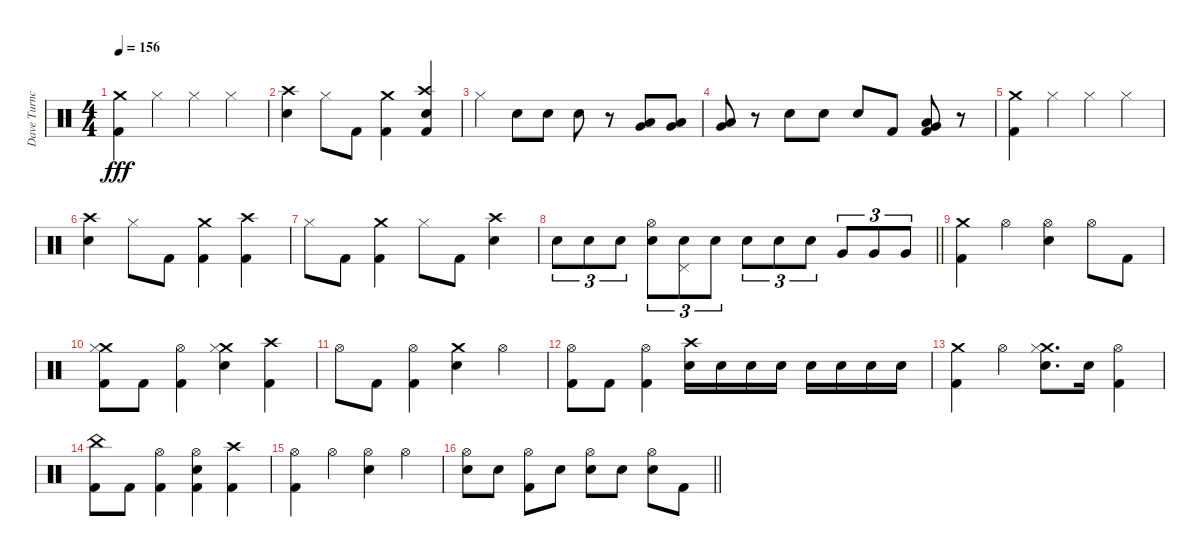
\track ("Dave Turncrantz" "Dave Turnc") {instrument percussion}
\staff {score}
\articulation defaults
\ts (4 4)
\section ("" "")
\tempo 156
\clef neutral
\ks c
("Crash medium (hit)" "Kick (hit) 2").4{dy fff} "Hi-Hat (closed)".4 "Hi-Hat (closed)".4 "Hi-Hat (closed)".4 |
("Crash high (hit)" "Electric Snare (hit)").4 "Hi-Hat (closed)".8 "Kick (hit) 2".8 ("Crash medium (hit)" "Kick (hit) 2").4 ("Crash high (hit)" "Electric Snare (hit)" "Kick (hit) 2").4 |
"Hi-Hat (closed)".4 "Electric Snare (hit)".8 "Electric Snare (hit)".8 "Electric Snare (hit)".8 r.8 ("Very Low Tom (hit)" "Low Floor Tom (hit)").8 ("Very Low Tom (hit)" "Low Floor Tom (hit)").8 |
("Very Low Tom (hit)" "Low Floor Tom (hit)").8 r.8 "Electric Snare (hit)".8 "Electric Snare (hit)".8 "Electric Snare (hit)".8 "Kick (hit) 2".8 ("Very Low Tom (hit)" "Low Floor Tom (hit)" "Kick (hit) 2").8 r.8 |
("Crash medium (hit)" "Kick (hit) 2").4 "Hi-Hat (closed)".4 "Hi-Hat (closed)".4 "Hi-Hat (closed)".4 |
("Crash high (hit)" "Electric Snare (hit)").4 "Hi-Hat (closed)".8 "Kick (hit) 2".8 ("Crash medium (hit)" "Kick (hit) 2").4 ("Crash high (hit)" "Kick (hit) 2").4 |
"Hi-Hat (closed)".8 "Kick (hit) 2".8 ("Crash medium (hit)" "Kick (hit) 2").4 "Hi-Hat (closed)".8 "Kick (hit) 2".8 ("Crash high (hit)" "Electric Snare (hit)").4 |
\barLineRight lightlight "Electric Snare (hit)".8{tu (3 2)} "Electric Snare (hit)".8{tu (3 2)} "Electric Snare (hit)".8{tu (3 2)}
("Hi-Hat (open)" "Electric Snare (hit)").8{tu (3 2)} ("Pedal Hi-Hat (hit)" "Electric Snare (hit)").8{tu (3 2)} "Electric Snare (hit)".8{tu (3 2)} "Electric Snare (hit)".8{tu (3 2)} "Electric Snare (hit)".8{tu (3 2)} "Electric Snare (hit)".8{tu (3 2)} "Very Low Tom (hit)".8{tu (3 2)} "Very Low Tom (hit)".8{tu (3 2)} "Very Low Tom (hit)".8{tu (3 2)} |
\section ("" "")
("Crash medium (hit)" "Kick (hit) 2").4 "Hi-Hat (open)".4 ("Hi-Hat (open)" "Electric Snare (hit)").4 "Hi-Hat (open)".8 "Kick (hit) 2".8 |
("Crash medium (hit)" "Hi-Hat (closed)" "Kick (hit) 2").8 "Kick (hit) 2".8 ("Hi-Hat (open)" "Kick (hit) 2").4 ("Crash medium (hit)" "Hi-Hat (closed)" "Electric Snare (hit)").4 ("Crash high (hit)" "Kick (hit) 2").4 |
"Hi-Hat (open)".8 "Kick (hit) 2".8 ("Hi-Hat (open)" "Kick (hit) 2").4 ("Crash medium (hit)" "Electric Snare (hit)").4 "Hi-Hat (open)".4 |
("Hi-Hat (open)" "Kick (hit) 2").8 "Kick (hit) 2".8 ("Hi-Hat (open)" "Kick (hit) 2").4 ("Crash high (hit)" "Electric Snare (hit)").16 "Electric Snare (hit)".16 "Electric Snare (hit)".16 "Electric Snare (hit)".16 "Electric Snare (hit)".16 "Electric Snare (hit)".16 "Electric Snare (hit)".16 "Electric Snare (hit)".16 |
("Crash medium (hit)" "Kick (hit) 2").4 "Hi-Hat (open)".4 ("Crash medium (hit)" "Hi-Hat (closed)" "Electric Snare (hit)").8{d} "Electric Snare (hit)".16 ("Hi-Hat (open)" "Kick (hit) 2").4 |
("China (hit)" "Kick (hit) 2").8 "Kick (hit) 2".8 ("Hi-Hat (open)" "Kick (hit) 2").4 ("Hi-Hat (open)" "Electric Snare (hit)" "Kick (hit) 2").4 ("Crash high (hit)" "Kick (hit) 2").4 |
("Hi-Hat (open)" "Kick (hit) 2").4 "Hi-Hat (open)".4 ("Hi-Hat (open)" "Electric Snare (hit)").4 "Hi-Hat (open)".4 |
\barLineRight lightlight
("Hi-Hat (open)" "Electric Snare (hit)").8 "Electric Snare (hit)".8 ("Hi-Hat (open)" "Kick (hit) 2").8 "Electric Snare (hit)".8 ("Hi-Hat (open)" "Electric Snare (hit)").8 "Electric Snare (hit)".8 ("Hi-Hat (open)" "Electric Snare (hit)").8 "Kick (hit) 2".8
